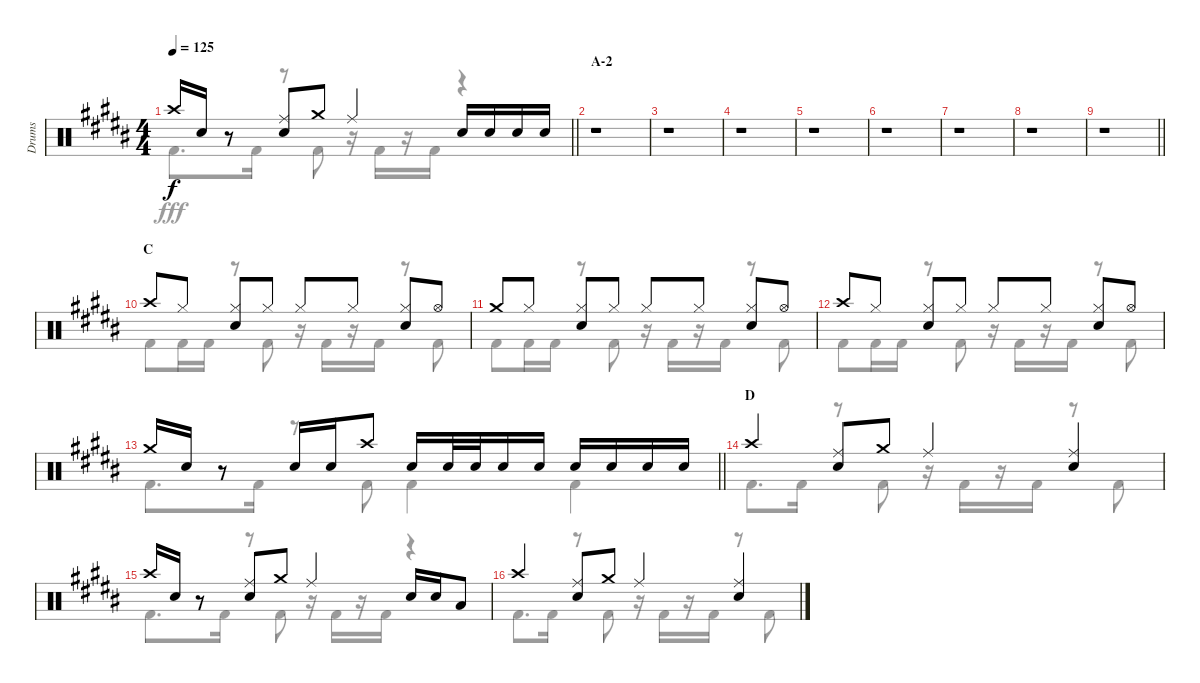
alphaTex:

\track ("Drums" "Drums") {instrument percussion}
\staff {score}
\articulation defaults
\voice
\ts (4 4)
\tempo 125
\clef neutral
\barLineRight lightlight
\ks b "Crash high (hit)".16{dy f} "Snare (hit) 2".16
r.8 ("Ride (middle)" "Snare (hit) 2").8 "Crash medium (hit)".8 "Ride (middle)".4 "Snare (hit) 2".16 "Snare (hit) 2".16 "Snare (hit) 2".16 "Snare (hit) 2".16 |
\section ("" "A-2")
r.1 |
r.1 |
r.1 |
r.1 |
r.1 |
r.1 |
r.1 |
\barLineRight lightlight
r.1 |
\section ("" "C")
"Crash high (hit)".8 "Hi-Hat (closed)".8 ("Hi-Hat (closed)" "Snare (hit) 2").8 "Hi-Hat (closed)".8 "Hi-Hat (closed)".8 "Hi-Hat (closed)".8 ("Hi-Hat (closed)" "Snare (hit) 2").8 "Hi-Hat (open)".8 |
"Crash medium (hit)".8 "Hi-Hat (closed)".8 ("Hi-Hat (closed)" "Snare (hit) 2").8 "Hi-Hat (closed)".8 "Hi-Hat (closed)".8 "Hi-Hat (closed)".8 ("Hi-Hat (closed)" "Snare (hit) 2").8 "Hi-Hat (open)".8 |
"Crash high (hit)".8 "Hi-Hat (closed)".8 ("Hi-Hat (closed)" "Snare (hit) 2").8 "Hi-Hat (closed)".8 "Hi-Hat (closed)".8 "Hi-Hat (closed)".8 ("Hi-Hat (closed)" "Snare (hit) 2").8 "Hi-Hat (open)".8 |
\barLineRight lightlight "Crash medium (hit)".16 "Snare (hit) 2".16
r.8 "Snare (hit) 2".16 "Snare (hit) 2".16 "Crash high (hit)".8 "Snare (hit) 2".16 "Snare (hit) 2".32 "Snare (hit) 2".32 "Snare (hit) 2".16 "Snare (hit) 2".16 "Snare (hit) 2".16 "Snare (hit) 2".16 "Snare (hit) 2".16 "Snare (hit) 2".16 |
\section ("" "D")
"Crash high (hit)".4 ("Ride (middle)" "Snare (hit) 2").8 "Crash medium (hit)".8 "Ride (middle)".4 ("Ride (middle)" "Snare (hit) 2").4 |
"Crash high (hit)".16 "Snare (hit) 2".16 r.8 ("Ride (middle)" "Snare (hit) 2").8 "Crash medium (hit)".8 "Ride (middle)".4 "Snare (hit) 2".16 "Snare (hit) 2".16 "Low Tom (hit)".8 |
"Crash high (hit)".4 ("Ride (middle)" "Snare (hit) 2").8 "Crash medium (hit)".8 "Ride (middle)".4 ("Ride (middle)" "Snare (hit) 2").4
\voice
\clef neutral
\ottava regular
\simile none
\barLineRight lightlight
\ks b "Kick (hit) 2".8{d dy fff} "Kick (hit) 2".16
r.8 "Kick (hit) 2".8 r.16 "Kick (hit) 2".16 r.16 "Kick (hit) 2".16 r.4 |
r.1 |
r.1 |
r.1 |
r.1 |
r.1 |
r.1 |
r.1 |
\barLineRight lightlight
r.1 |
"Kick (hit) 2".8 "Kick (hit) 2".16 "Kick (hit) 2".16 r.8 "Kick (hit) 2".8 r.16 "Kick (hit) 2".16 r.16 "Kick (hit) 2".16 r.8 "Kick (hit) 2".8 |
"Kick (hit) 2".8 "Kick (hit) 2".16 "Kick (hit) 2".16 r.8 "Kick (hit) 2".8 r.16 "Kick (hit) 2".16 r.16 "Kick (hit) 2".16 r.8 "Kick (hit) 2".8 |
"Kick (hit) 2".8 "Kick (hit) 2".16 "Kick (hit) 2".16 r.8 "Kick (hit) 2".8 r.16 "Kick (hit) 2".16 r.16 "Kick (hit) 2".16 r.8 "Kick (hit) 2".8 |
\barLineRight lightlight "Kick (hit) 2".8{d} "Kick (hit) 2".16
r.8 "Kick (hit) 2".8 "Kick (hit) 2".4 "Kick (hit) 2".4 |
"Kick (hit) 2".8{d} "Kick (hit) 2".16 r.8 "Kick (hit) 2".8 r.16 "Kick (hit) 2".16 r.16 "Kick (hit) 2".16 r.8 "Kick (hit) 2".8 |
"Kick (hit) 2".8{d} "Kick (hit) 2".16 r.8 "Kick (hit) 2".8 r.16 "Kick (hit) 2".16 r.16 "Kick (hit) 2".16 r.4 |
"Kick (hit) 2".8{d} "Kick (hit) 2".16 r.8 "Kick (hit) 2".8 r.16 "Kick (hit) 2".16 r.16 "Kick (hit) 2".16 r.8 "Kick (hit) 2".8
